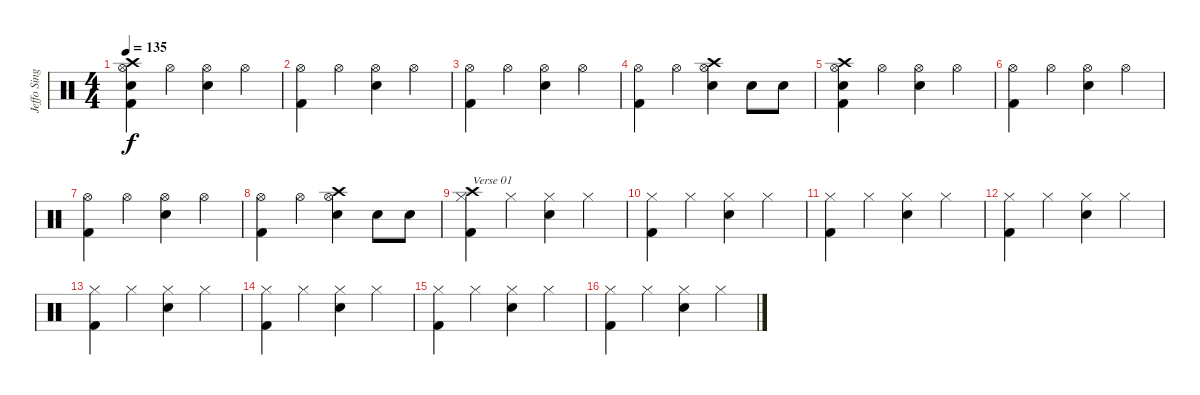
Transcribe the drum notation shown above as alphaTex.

\track ("Jeffo Singer" "Jeffo Sing") {instrument percussion}
\staff {score}
\articulation defaults
\ts (4 4)
\tempo 135
\clef neutral
\ks c
("Hi-Hat (open)" "Kick (hit) 2" "Snare (hit) 2" "Crash high (hit)").4{dy f} "Hi-Hat (open)".4 ("Hi-Hat (open)" "Snare (hit) 2").4 "Hi-Hat (open)".4 |
("Hi-Hat (open)" "Kick (hit) 2").4 "Hi-Hat (open)".4 ("Hi-Hat (open)" "Snare (hit) 2").4 "Hi-Hat (open)".4 |
("Hi-Hat (open)" "Kick (hit) 2").4 "Hi-Hat (open)".4 ("Hi-Hat (open)" "Snare (hit) 2").4 "Hi-Hat (open)".4 |
("Hi-Hat (open)" "Kick (hit) 2").4 "Hi-Hat (open)".4 ("Hi-Hat (open)" "Snare (hit) 2" "Crash high (hit)").4 "Snare (hit) 2".8 "Snare (hit) 2".8 |
("Hi-Hat (open)" "Kick (hit) 2" "Snare (hit) 2" "Crash high (hit)").4 "Hi-Hat (open)".4 ("Hi-Hat (open)" "Snare (hit) 2").4 "Hi-Hat (open)".4 |
("Hi-Hat (open)" "Kick (hit) 2").4 "Hi-Hat (open)".4 ("Hi-Hat (open)" "Snare (hit) 2").4 "Hi-Hat (open)".4 |
("Hi-Hat (open)" "Kick (hit) 2").4 "Hi-Hat (open)".4 ("Hi-Hat (open)" "Snare (hit) 2").4 "Hi-Hat (open)".4 |
("Hi-Hat (open)" "Kick (hit) 2").4 "Hi-Hat (open)".4 ("Hi-Hat (open)" "Snare (hit) 2" "Crash high (hit)").4 "Snare (hit) 2".8 "Snare (hit) 2".8 |
("Hi-Hat (closed)" "Kick (hit) 2" "Crash high (hit)").4{txt "Verse 01"} "Hi-Hat (closed)".4 ("Hi-Hat (closed)" "Snare (hit) 2").4 "Hi-Hat (closed)".4 |
("Hi-Hat (closed)" "Kick (hit) 2").4 "Hi-Hat (closed)".4 ("Hi-Hat (closed)" "Snare (hit) 2").4 "Hi-Hat (closed)".4 |
("Hi-Hat (closed)" "Kick (hit) 2").4 "Hi-Hat (closed)".4 ("Hi-Hat (closed)" "Snare (hit) 2").4 "Hi-Hat (closed)".4 |
("Hi-Hat (closed)" "Kick (hit) 2").4 "Hi-Hat (closed)".4 ("Hi-Hat (closed)" "Snare (hit) 2").4 "Hi-Hat (closed)".4 |
("Hi-Hat (closed)" "Kick (hit) 2").4 "Hi-Hat (closed)".4 ("Hi-Hat (closed)" "Snare (hit) 2").4 "Hi-Hat (closed)".4 |
("Hi-Hat (closed)" "Kick (hit) 2").4 "Hi-Hat (closed)".4 ("Hi-Hat (closed)" "Snare (hit) 2").4 "Hi-Hat (closed)".4 |
("Hi-Hat (closed)" "Kick (hit) 2").4 "Hi-Hat (closed)".4 ("Hi-Hat (closed)" "Snare (hit) 2").4 "Hi-Hat (closed)".4 |
("Hi-Hat (closed)" "Kick (hit) 2").4 "Hi-Hat (closed)".4 ("Hi-Hat (closed)" "Snare (hit) 2").4 "Hi-Hat (closed)".4
